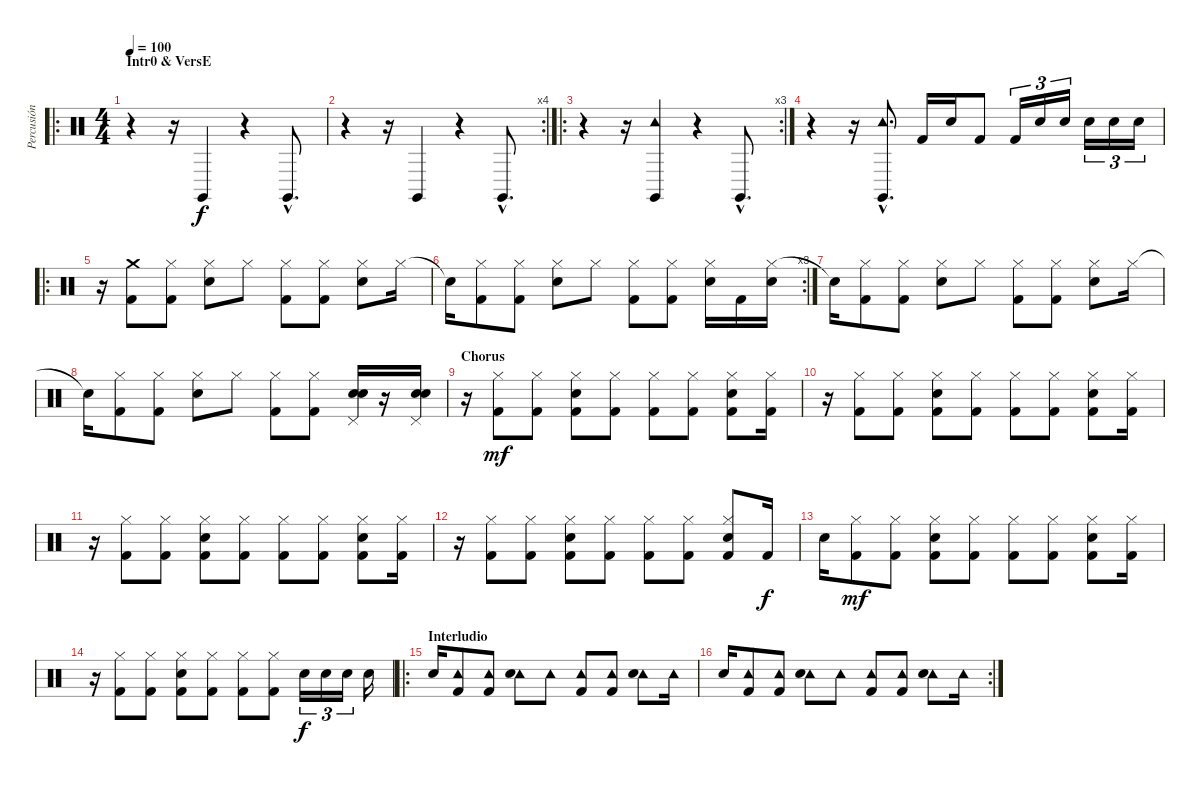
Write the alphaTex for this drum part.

\track ("Percusión" "Percusión") {instrument percussion}
\staff {score}
\articulation defaults
\ro
\ts (4 4)
\section ("" "Intr0 & VersE")
\tempo 100
\clef neutral
\ks c
r.4{dy f} r.16 "Claves (hit)".4 r.4 "Claves (hit)"{hac}.8{d} |
\rc 4
r.4 r.16 "Claves (hit)".4 r.4 "Claves (hit)"{hac}.8{d} |
\ro
\rc 3
r.4 r.16 ("Tambourine (hit)" "Claves (hit)").4 r.4 "Claves (hit)"{hac}.8{d} |
r.4 r.16 ("Tambourine (hit)"{hac} "Claves (hit)"{hac}).8{d} "Kick (hit) 2".16 "Snare (hit) 2".16 "Kick (hit) 2".8 "Kick (hit) 2".16{tu (3 2)} "Snare (hit) 2".16{tu (3 2)} "Snare (hit) 2".16{tu (3 2)} "Snare (hit) 2".16{tu (3 2)} "Snare (hit) 2".16{tu (3 2)} "Snare (hit) 2".16{tu (3 2)} |
\ro
r.16 ("Crash medium (hit)" "Kick (hit) 2").8 ("Hi-Hat (closed)" "Kick (hit) 2").8 ("Hi-Hat (closed)" "Electric Snare (hit)").8 "Hi-Hat (closed)".8 ("Hi-Hat (closed)" "Kick (hit) 2").8 ("Hi-Hat (closed)" "Kick (hit) 2").8 ("Hi-Hat (closed)" "Electric Snare (hit)").8 "Hi-Hat (closed)".16 |
\rc 3 "Snare (hit)"{t}.16
("Hi-Hat (closed)" "Kick (hit) 2").8 ("Hi-Hat (closed)" "Kick (hit) 2").8 ("Hi-Hat (closed)" "Electric Snare (hit)").8 "Hi-Hat (closed)".8 ("Hi-Hat (closed)" "Kick (hit) 2").8 ("Hi-Hat (closed)" "Kick (hit) 2").8 ("Hi-Hat (closed)" "Electric Snare (hit)").16 "Kick (hit) 2".16 ("Hi-Hat (closed)" "Electric Snare (hit)").16 |
"Snare (hit)"{t}.16 ("Hi-Hat (closed)" "Kick (hit) 2").8 ("Hi-Hat (closed)" "Kick (hit) 2").8 ("Hi-Hat (closed)" "Electric Snare (hit)").8 "Hi-Hat (closed)".8 ("Hi-Hat (closed)" "Kick (hit) 2").8 ("Hi-Hat (closed)" "Kick (hit) 2").8 ("Hi-Hat (closed)" "Electric Snare (hit)").8 "Hi-Hat (closed)".16 |
"Snare (hit)"{t}.16 ("Hi-Hat (closed)" "Kick (hit) 2").8 ("Hi-Hat (closed)" "Kick (hit) 2").8 ("Hi-Hat (closed)" "Electric Snare (hit)").8 "Hi-Hat (closed)".8 ("Hi-Hat (closed)" "Kick (hit) 2").8 ("Hi-Hat (closed)" "Kick (hit) 2").8 ("Electric Snare (hit)" "Electric Snare (hit)" "Pedal Hi-Hat (hit)").16 r.16 ("Electric Snare (hit)" "Electric Snare (hit)" "Pedal Hi-Hat (hit)").16 |
\section ("" "Chorus")
r.16 ("Hi-Hat (closed)" "Kick (hit) 2").8{dy mf} ("Hi-Hat (closed)" "Kick (hit) 2").8 ("Hi-Hat (closed)" "Electric Snare (hit)" "Kick (hit) 2").8 ("Hi-Hat (closed)" "Kick (hit) 2").8 ("Hi-Hat (closed)" "Kick (hit) 2").8 ("Hi-Hat (closed)" "Kick (hit) 2").8 ("Hi-Hat (closed)" "Electric Snare (hit)" "Kick (hit) 2").8 ("Hi-Hat (closed)" "Kick (hit) 2").16 |
r.16 ("Hi-Hat (closed)" "Kick (hit) 2").8 ("Hi-Hat (closed)" "Kick (hit) 2").8 ("Hi-Hat (closed)" "Electric Snare (hit)" "Kick (hit) 2").8 ("Hi-Hat (closed)" "Kick (hit) 2").8 ("Hi-Hat (closed)" "Kick (hit) 2").8 ("Hi-Hat (closed)" "Kick (hit) 2").8 ("Hi-Hat (closed)" "Electric Snare (hit)" "Kick (hit) 2").8 ("Hi-Hat (closed)" "Kick (hit) 2").16 |
r.16 ("Hi-Hat (closed)" "Kick (hit) 2").8 ("Hi-Hat (closed)" "Kick (hit) 2").8 ("Hi-Hat (closed)" "Electric Snare (hit)" "Kick (hit) 2").8 ("Hi-Hat (closed)" "Kick (hit) 2").8 ("Hi-Hat (closed)" "Kick (hit) 2").8 ("Hi-Hat (closed)" "Kick (hit) 2").8 ("Hi-Hat (closed)" "Electric Snare (hit)" "Kick (hit) 2").8 ("Hi-Hat (closed)" "Kick (hit) 2").16 |
r.16 ("Hi-Hat (closed)" "Kick (hit) 2").8 ("Hi-Hat (closed)" "Kick (hit) 2").8 ("Hi-Hat (closed)" "Electric Snare (hit)" "Kick (hit) 2").8 ("Hi-Hat (closed)" "Kick (hit) 2").8 ("Hi-Hat (closed)" "Kick (hit) 2").8 ("Hi-Hat (closed)" "Kick (hit) 2").8 ("Hi-Hat (closed)" "Electric Snare (hit)" "Kick (hit) 2").8 "Kick (hit) 2".16{dy f} |
"Electric Snare (hit)".16 ("Hi-Hat (closed)" "Kick (hit) 2").8{dy mf} ("Hi-Hat (closed)" "Kick (hit) 2").8 ("Hi-Hat (closed)" "Electric Snare (hit)" "Kick (hit) 2").8 ("Hi-Hat (closed)" "Kick (hit) 2").8 ("Hi-Hat (closed)" "Kick (hit) 2").8 ("Hi-Hat (closed)" "Kick (hit) 2").8 ("Hi-Hat (closed)" "Electric Snare (hit)" "Kick (hit) 2").8 ("Hi-Hat (closed)" "Kick (hit) 2").16 |
r.16 ("Hi-Hat (closed)" "Kick (hit) 2").8 ("Hi-Hat (closed)" "Kick (hit) 2").8 ("Hi-Hat (closed)" "Electric Snare (hit)" "Kick (hit) 2").8 ("Hi-Hat (closed)" "Kick (hit) 2").8 ("Hi-Hat (closed)" "Kick (hit) 2").8 ("Hi-Hat (closed)" "Kick (hit) 2").8 "Electric Snare (hit)".16{tu (3 2) dy f} "Electric Snare (hit)".16{tu (3 2)} "Electric Snare (hit)".16{tu (3 2)} "Electric Snare (hit)".16 |
\ro
\section ("" "Interludio")
"Electric Snare (hit)".16 ("Tambourine (hit)" "Kick (hit) 2").8 ("Tambourine (hit)" "Kick (hit) 2").8 ("Tambourine (hit)" "Electric Snare (hit)").8 "Tambourine (hit)".8 ("Tambourine (hit)" "Kick (hit) 2").8 ("Tambourine (hit)" "Kick (hit) 2").8 ("Tambourine (hit)" "Electric Snare (hit)").8 "Tambourine (hit)".16 |
\rc 2 "Electric Snare (hit)".16
("Tambourine (hit)" "Kick (hit) 2").8 ("Tambourine (hit)" "Kick (hit) 2").8 ("Tambourine (hit)" "Electric Snare (hit)").8 "Tambourine (hit)".8 ("Tambourine (hit)" "Kick (hit) 2").8 ("Tambourine (hit)" "Kick (hit) 2").8 ("Tambourine (hit)" "Electric Snare (hit)").8 "Tambourine (hit)".16
